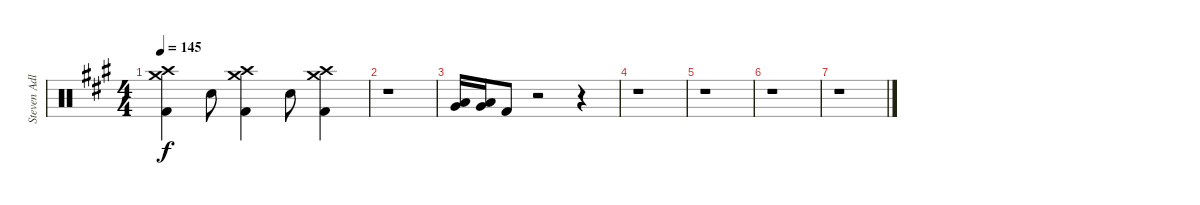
\track ("Steven Adler - Drums" "Steven Adl") {instrument percussion}
\staff {score}
\articulation defaults
\ts (4 4)
\tempo 145
\clef neutral
\ks a
("Crash medium (hit)" "Crash high (hit)" "Kick (hit) 2").4{dy f} "Snare (hit) 2".8 ("Crash medium (hit)" "Crash high (hit)" "Kick (hit) 2").4 "Snare (hit) 2".8 ("Crash medium (hit)" "Crash high (hit)" "Kick (hit) 2").4 |
r.1 |
("Very Low Tom (hit)" "Low Tom (hit)").16 ("Very Low Tom (hit)" "Low Tom (hit)").16 "Kick (hit) 2".8 r.2 r.4 |
r.1 |
r.1 |
r.1 |
r.1
